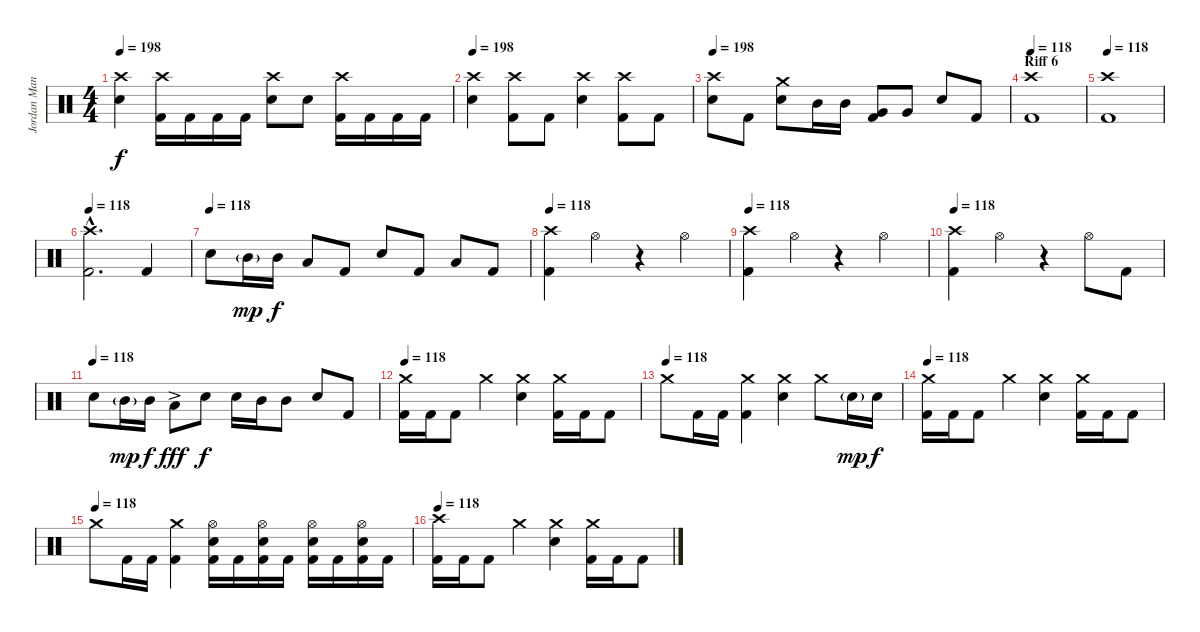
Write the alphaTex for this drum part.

\track ("Jordan Mancino (Drums)" "Jordan Man") {instrument percussion}
\staff {score}
\articulation defaults
\ts (4 4)
\tempo 198
\clef neutral
\ks c
("Crash high (hit)" "Snare (hit) 2").4{dy f} ("Crash high (hit)" "Kick (hit) 2").16 "Kick (hit) 2".16 "Kick (hit) 2".16 "Kick (hit) 2".16 ("Crash high (hit)" "Snare (hit) 2").8 "Snare (hit) 2".8 ("Crash high (hit)" "Kick (hit) 2").16 "Kick (hit) 2".16 "Kick (hit) 2".16 "Kick (hit) 2".16 |
\tempo 198
("Crash high (hit)" "Snare (hit) 2").4 ("Crash high (hit)" "Kick (hit) 2").8 "Kick (hit) 2".8 ("Crash high (hit)" "Snare (hit) 2").4 ("Crash high (hit)" "Kick (hit) 2").8 "Kick (hit) 2".8 |
\tempo 198
("Crash high (hit)" "Snare (hit) 2").8 "Kick (hit) 2".8 ("Crash medium (hit)" "Snare (hit) 2").8 "Mid Tom (hit)".16 "Mid Tom (hit)".16 ("Very Low Tom (hit)" "Kick (hit) 2").8 "Very Low Tom (hit)".8 "Snare (hit) 2".8 "Kick (hit) 2".8 |
\section ("" "Riff 6")
\tempo 117
\tempo 118
("Crash high (hit)" "Kick (hit) 2").1 |
\tempo 118
("Crash high (hit)" "Kick (hit) 2").1 |
\tempo 118
("Crash high (hit)"{hac} "Kick (hit) 2"{hac}).2{d} "Kick (hit) 2".4 |
\tempo (118)
"Snare (hit) 2".8 "Mid Tom (hit)"{g}.16{dy mp} "Mid Tom (hit)".16{dy f} "Low Floor Tom (hit)".8 "Kick (hit) 2".8 "Snare (hit) 2".8 "Kick (hit) 2".8 "Low Floor Tom (hit)".8 "Kick (hit) 2".8 |
\tempo 117
\tempo 118
("Crash high (hit)" "Kick (hit) 2").4 "Hi-Hat (open)".4 r.4 "Hi-Hat (open)".4 |
\tempo 118
("Crash high (hit)" "Kick (hit) 2").4 "Hi-Hat (open)".4 r.4 "Hi-Hat (open)".4 |
\tempo 118
("Crash high (hit)" "Kick (hit) 2").4 "Hi-Hat (open)".4 r.4 "Hi-Hat (open)".8 "Kick (hit) 2".8 |
\tempo (118)
"Snare (hit) 2".8 "Mid Tom (hit)"{g}.16{dy mp} "Mid Tom (hit)".16{dy f} "Low Floor Tom (hit)"{ac}.8{dy fff} "Snare (hit) 2".8{dy f} "Snare (hit) 2".16 "Mid Tom (hit)".16 "Mid Tom (hit)".8 "Snare (hit) 2".8 "Kick (hit) 2".8 |
\tempo 118
("Crash medium (hit)" "Kick (hit) 2").16 "Kick (hit) 2".16 "Kick (hit) 2".8 "Crash medium (hit)".4 ("Crash medium (hit)" "Snare (hit) 2").4 ("Crash medium (hit)" "Kick (hit) 2").16 "Kick (hit) 2".16 "Kick (hit) 2".8 |
\tempo (118)
"Crash medium (hit)".8 "Kick (hit) 2".16 "Kick (hit) 2".16 ("Crash medium (hit)" "Kick (hit) 2").4 ("Crash medium (hit)" "Snare (hit) 2").4 "Crash medium (hit)".8 "Snare (hit) 2"{g}.16{dy mp} "Snare (hit) 2".16{dy f} |
\tempo 118
("Crash medium (hit)" "Kick (hit) 2").16 "Kick (hit) 2".16 "Kick (hit) 2".8 "Crash medium (hit)".4 ("Crash medium (hit)" "Snare (hit) 2").4 ("Crash medium (hit)" "Kick (hit) 2").16 "Kick (hit) 2".16 "Kick (hit) 2".8 |
\tempo (118)
"Crash medium (hit)".8 "Kick (hit) 2".16 "Kick (hit) 2".16 ("Crash medium (hit)" "Kick (hit) 2").4 ("Hi-Hat (open)" "Snare (hit) 2" "Kick (hit) 2").16 "Kick (hit) 2".16 ("Hi-Hat (open)" "Snare (hit) 2" "Kick (hit) 2").16 "Kick (hit) 2".16 ("Hi-Hat (open)" "Snare (hit) 2" "Kick (hit) 2").16 "Kick (hit) 2".16 ("Hi-Hat (open)" "Snare (hit) 2" "Kick (hit) 2").16 "Kick (hit) 2".16 |
\tempo 118
("Crash high (hit)" "Kick (hit) 2").16 "Kick (hit) 2".16 "Kick (hit) 2".8 "Crash medium (hit)".4 ("Crash medium (hit)" "Snare (hit) 2").4 ("Crash medium (hit)" "Kick (hit) 2").16 "Kick (hit) 2".16 "Kick (hit) 2".8
